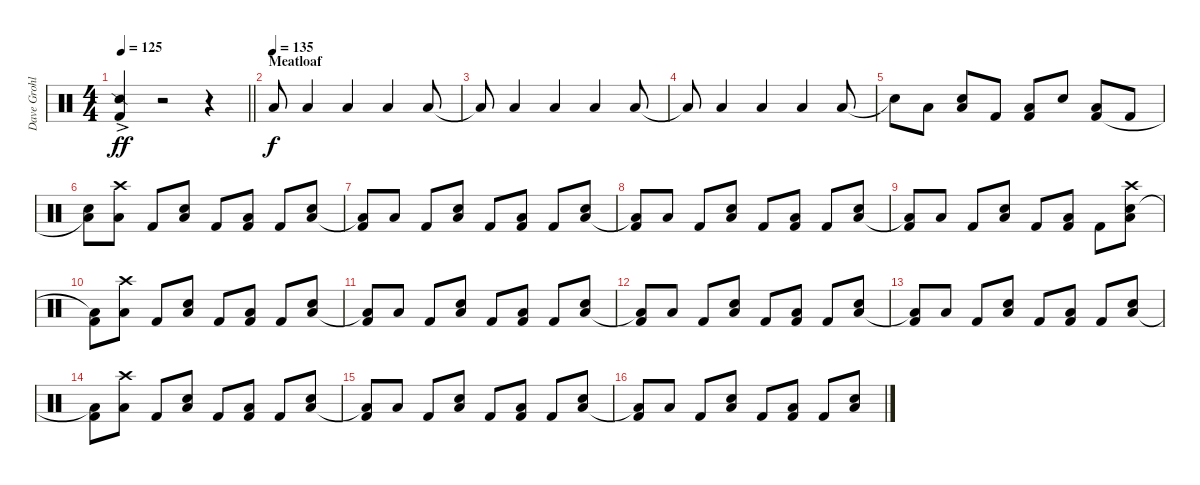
\track ("Dave Grohl" "Dave Grohl") {instrument percussion}
\staff {score}
\articulation defaults
\ts (4 4)
\tempo 125
\clef neutral
\barLineRight lightlight
\ks c
("Snare (side stick) 2" "Kick (hit) 2"{ac}).4{dy ff} r.2 r.4 |
\section ("" "Meatloaf")
\tempo (135)
"Low Tom (hit)".8{dy f} "Low Tom (hit)".4 "Low Tom (hit)".4 "Low Tom (hit)".4 "Low Tom (hit)".8 |
"Low Tom (hit)"{t}.8 "Low Tom (hit)".4 "Low Tom (hit)".4 "Low Tom (hit)".4 "Low Tom (hit)".8 |
"Low Tom (hit)"{t}.8 "Low Tom (hit)".4 "Low Tom (hit)".4 "Low Tom (hit)".4 "Low Tom (hit)".8 |
"Snare (hit)"{t}.8 "Low Tom (hit)".8 ("Low Tom (hit)" "Snare (hit) 2").8 "Kick (hit) 2".8 ("Low Tom (hit)" "Kick (hit) 2").8 "Snare (hit) 2".8 ("Low Tom (hit)" "Kick (hit) 2").8 "Kick (hit) 2".8 |
("Snare (hit) 2" "Low Tom (hit)"{t}).8 ("Crash high (hit)" "Low Tom (hit)").8 "Kick (hit) 2".8 ("Snare (hit) 2" "Low Tom (hit)").8 "Kick (hit) 2".8 ("Kick (hit) 2" "Low Tom (hit)").8 "Kick (hit) 2".8 ("Snare (hit) 2" "Low Tom (hit)").8 |
("Kick (hit) 2" "Low Tom (hit)"{t}).8 "Low Tom (hit)".8 "Kick (hit) 2".8 ("Snare (hit) 2" "Low Tom (hit)").8 "Kick (hit) 2".8 ("Kick (hit) 2" "Low Tom (hit)").8 "Kick (hit) 2".8 ("Snare (hit) 2" "Low Tom (hit)").8 |
("Kick (hit) 2" "Low Tom (hit)"{t}).8 "Low Tom (hit)".8 "Kick (hit) 2".8 ("Snare (hit) 2" "Low Tom (hit)").8 "Kick (hit) 2".8 ("Kick (hit) 2" "Low Tom (hit)").8 "Kick (hit) 2".8 ("Snare (hit) 2" "Low Tom (hit)").8 |
("Kick (hit) 2" "Low Tom (hit)"{t}).8 "Low Tom (hit)".8 "Kick (hit) 2".8 ("Snare (hit) 2" "Low Tom (hit)").8 "Kick (hit) 2".8 ("Kick (hit) 2" "Low Tom (hit)").8 "Kick (hit) 2".8 ("Crash high (hit)" "Snare (hit) 2" "Low Tom (hit)").8 |
("Kick (hit) 2" "Low Tom (hit)"{t}).8 ("Crash high (hit)" "Low Tom (hit)").8 "Kick (hit) 2".8 ("Snare (hit) 2" "Low Tom (hit)").8 "Kick (hit) 2".8 ("Kick (hit) 2" "Low Tom (hit)").8 "Kick (hit) 2".8 ("Snare (hit) 2" "Low Tom (hit)").8 |
("Kick (hit) 2" "Low Tom (hit)"{t}).8 "Low Tom (hit)".8 "Kick (hit) 2".8 ("Snare (hit) 2" "Low Tom (hit)").8 "Kick (hit) 2".8 ("Kick (hit) 2" "Low Tom (hit)").8 "Kick (hit) 2".8 ("Snare (hit) 2" "Low Tom (hit)").8 |
("Kick (hit) 2" "Low Tom (hit)"{t}).8 "Low Tom (hit)".8 "Kick (hit) 2".8 ("Snare (hit) 2" "Low Tom (hit)").8 "Kick (hit) 2".8 ("Kick (hit) 2" "Low Tom (hit)").8 "Kick (hit) 2".8 ("Snare (hit) 2" "Low Tom (hit)").8 |
("Kick (hit) 2" "Low Tom (hit)"{t}).8 "Low Tom (hit)".8 "Kick (hit) 2".8 ("Snare (hit) 2" "Low Tom (hit)").8 "Kick (hit) 2".8 ("Kick (hit) 2" "Low Tom (hit)").8 "Kick (hit) 2".8 ("Snare (hit) 2" "Low Tom (hit)").8 |
("Kick (hit) 2" "Low Tom (hit)"{t}).8 ("Crash high (hit)" "Low Tom (hit)").8 "Kick (hit) 2".8 ("Snare (hit) 2" "Low Tom (hit)").8 "Kick (hit) 2".8 ("Kick (hit) 2" "Low Tom (hit)").8 "Kick (hit) 2".8 ("Snare (hit) 2" "Low Tom (hit)").8 |
("Kick (hit) 2" "Low Tom (hit)"{t}).8 "Low Tom (hit)".8 "Kick (hit) 2".8 ("Snare (hit) 2" "Low Tom (hit)").8 "Kick (hit) 2".8 ("Kick (hit) 2" "Low Tom (hit)").8 "Kick (hit) 2".8 ("Snare (hit) 2" "Low Tom (hit)").8 |
("Kick (hit) 2" "Low Tom (hit)"{t}).8 "Low Tom (hit)".8 "Kick (hit) 2".8 ("Snare (hit) 2" "Low Tom (hit)").8 "Kick (hit) 2".8 ("Kick (hit) 2" "Low Tom (hit)").8 "Kick (hit) 2".8 ("Snare (hit) 2" "Low Tom (hit)").8
